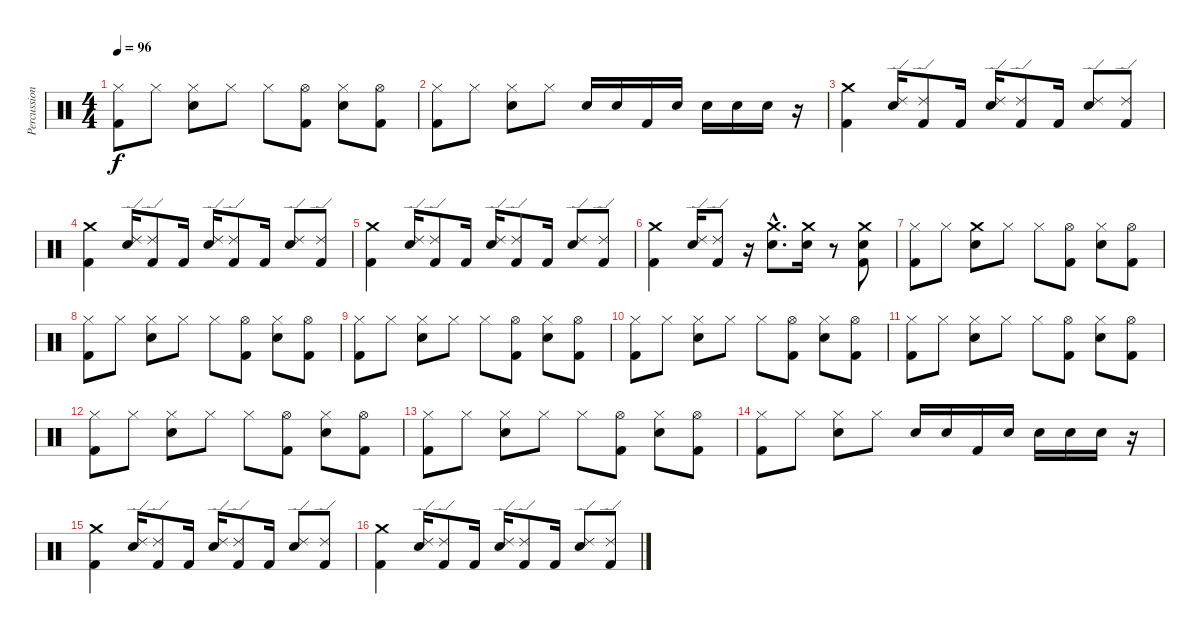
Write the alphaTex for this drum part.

\track ("Percussion" "Percussion") {instrument percussion}
\staff {score}
\articulation defaults
\ts (4 4)
\tempo 96
\clef neutral
\ks c
("Hi-Hat (closed)" "Kick (hit) 2").8{dy f} "Hi-Hat (closed)".8 ("Hi-Hat (closed)" "Snare (hit) 2").8 "Hi-Hat (closed)".8 "Hi-Hat (closed)".8 ("Hi-Hat (open)" "Kick (hit) 2").8 ("Hi-Hat (closed)" "Snare (hit) 2").8 ("Hi-Hat (open)" "Kick (hit) 2").8 |
("Hi-Hat (closed)" "Kick (hit) 2").8 "Hi-Hat (closed)".8 ("Hi-Hat (closed)" "Snare (hit) 2").8 "Hi-Hat (closed)".8 "Snare (hit) 2".16 "Snare (hit) 2".16 "Kick (hit) 2".16 "Snare (hit) 2".16 "Snare (hit) 2".16 "Snare (hit) 2".16 "Snare (hit) 2".16 r.16 |
("Crash medium (hit)" "Kick (hit) 2").4 ("Ride (edge) 2" "Snare (hit) 2").16 ("Ride (edge) 2" "Kick (hit) 2").8 "Kick (hit) 2".16 ("Ride (edge) 2" "Snare (hit) 2").16 ("Ride (edge) 2" "Kick (hit) 2").8 "Kick (hit) 2".16 ("Ride (edge) 2" "Snare (hit) 2").8 ("Ride (edge) 2" "Kick (hit) 2").8 |
("Crash medium (hit)" "Kick (hit) 2").4 ("Ride (edge) 2" "Snare (hit) 2").16 ("Ride (edge) 2" "Kick (hit) 2").8 "Kick (hit) 2".16 ("Ride (edge) 2" "Snare (hit) 2").16 ("Ride (edge) 2" "Kick (hit) 2").8 "Kick (hit) 2".16 ("Ride (edge) 2" "Snare (hit) 2").8 ("Ride (edge) 2" "Kick (hit) 2").8 |
("Crash medium (hit)" "Kick (hit) 2").4 ("Ride (edge) 2" "Snare (hit) 2").16 ("Ride (edge) 2" "Kick (hit) 2").8 "Kick (hit) 2".16 ("Ride (edge) 2" "Snare (hit) 2").16 ("Ride (edge) 2" "Kick (hit) 2").8 "Kick (hit) 2".16 ("Ride (edge) 2" "Snare (hit) 2").8 ("Ride (edge) 2" "Kick (hit) 2").8 |
("Crash medium (hit)" "Kick (hit) 2").4 ("Ride (edge) 2" "Snare (hit) 2").16 ("Ride (edge) 2" "Kick (hit) 2").8 r.16 ("Crash medium (hit)"{hac} "Snare (hit) 2"{hac}).8{d} ("Crash medium (hit)" "Snare (hit) 2").16 r.8 ("Crash medium (hit)" "Snare (hit) 2" "Kick (hit) 2").8 |
("Hi-Hat (closed)" "Kick (hit) 2").8 "Hi-Hat (closed)".8 ("Crash medium (hit)" "Snare (hit) 2").8 "Hi-Hat (closed)".8 "Hi-Hat (closed)".8 ("Hi-Hat (open)" "Kick (hit) 2").8 ("Hi-Hat (closed)" "Snare (hit) 2").8 ("Hi-Hat (open)" "Kick (hit) 2").8 |
("Hi-Hat (closed)" "Kick (hit) 2").8 "Hi-Hat (closed)".8 ("Hi-Hat (closed)" "Snare (hit) 2").8 "Hi-Hat (closed)".8 "Hi-Hat (closed)".8 ("Hi-Hat (open)" "Kick (hit) 2").8 ("Hi-Hat (closed)" "Snare (hit) 2").8 ("Hi-Hat (open)" "Kick (hit) 2").8 |
("Hi-Hat (closed)" "Kick (hit) 2").8 "Hi-Hat (closed)".8 ("Hi-Hat (closed)" "Snare (hit) 2").8 "Hi-Hat (closed)".8 "Hi-Hat (closed)".8 ("Hi-Hat (open)" "Kick (hit) 2").8 ("Hi-Hat (closed)" "Snare (hit) 2").8 ("Hi-Hat (open)" "Kick (hit) 2").8 |
("Hi-Hat (closed)" "Kick (hit) 2").8 "Hi-Hat (closed)".8 ("Hi-Hat (closed)" "Snare (hit) 2").8 "Hi-Hat (closed)".8 "Hi-Hat (closed)".8 ("Hi-Hat (open)" "Kick (hit) 2").8 ("Hi-Hat (closed)" "Snare (hit) 2").8 ("Hi-Hat (open)" "Kick (hit) 2").8 |
("Hi-Hat (closed)" "Kick (hit) 2").8 "Hi-Hat (closed)".8 ("Hi-Hat (closed)" "Snare (hit) 2").8 "Hi-Hat (closed)".8 "Hi-Hat (closed)".8 ("Hi-Hat (open)" "Kick (hit) 2").8 ("Hi-Hat (closed)" "Snare (hit) 2").8 ("Hi-Hat (open)" "Kick (hit) 2").8 |
("Hi-Hat (closed)" "Kick (hit) 2").8 "Hi-Hat (closed)".8 ("Hi-Hat (closed)" "Snare (hit) 2").8 "Hi-Hat (closed)".8 "Hi-Hat (closed)".8 ("Hi-Hat (open)" "Kick (hit) 2").8 ("Hi-Hat (closed)" "Snare (hit) 2").8 ("Hi-Hat (open)" "Kick (hit) 2").8 |
("Hi-Hat (closed)" "Kick (hit) 2").8 "Hi-Hat (closed)".8 ("Hi-Hat (closed)" "Snare (hit) 2").8 "Hi-Hat (closed)".8 "Hi-Hat (closed)".8 ("Hi-Hat (open)" "Kick (hit) 2").8 ("Hi-Hat (closed)" "Snare (hit) 2").8 ("Hi-Hat (open)" "Kick (hit) 2").8 |
("Hi-Hat (closed)" "Kick (hit) 2").8 "Hi-Hat (closed)".8 ("Hi-Hat (closed)" "Snare (hit) 2").8 "Hi-Hat (closed)".8 "Snare (hit) 2".16 "Snare (hit) 2".16 "Kick (hit) 2".16 "Snare (hit) 2".16 "Snare (hit) 2".16 "Snare (hit) 2".16 "Snare (hit) 2".16 r.16 |
("Crash medium (hit)" "Kick (hit) 2").4 ("Ride (edge) 2" "Snare (hit) 2").16 ("Ride (edge) 2" "Kick (hit) 2").8 "Kick (hit) 2".16 ("Ride (edge) 2" "Snare (hit) 2").16 ("Ride (edge) 2" "Kick (hit) 2").8 "Kick (hit) 2".16 ("Ride (edge) 2" "Snare (hit) 2").8 ("Ride (edge) 2" "Kick (hit) 2").8 |
("Crash medium (hit)" "Kick (hit) 2").4 ("Ride (edge) 2" "Snare (hit) 2").16 ("Ride (edge) 2" "Kick (hit) 2").8 "Kick (hit) 2".16 ("Ride (edge) 2" "Snare (hit) 2").16 ("Ride (edge) 2" "Kick (hit) 2").8 "Kick (hit) 2".16 ("Ride (edge) 2" "Snare (hit) 2").8 ("Ride (edge) 2" "Kick (hit) 2").8
